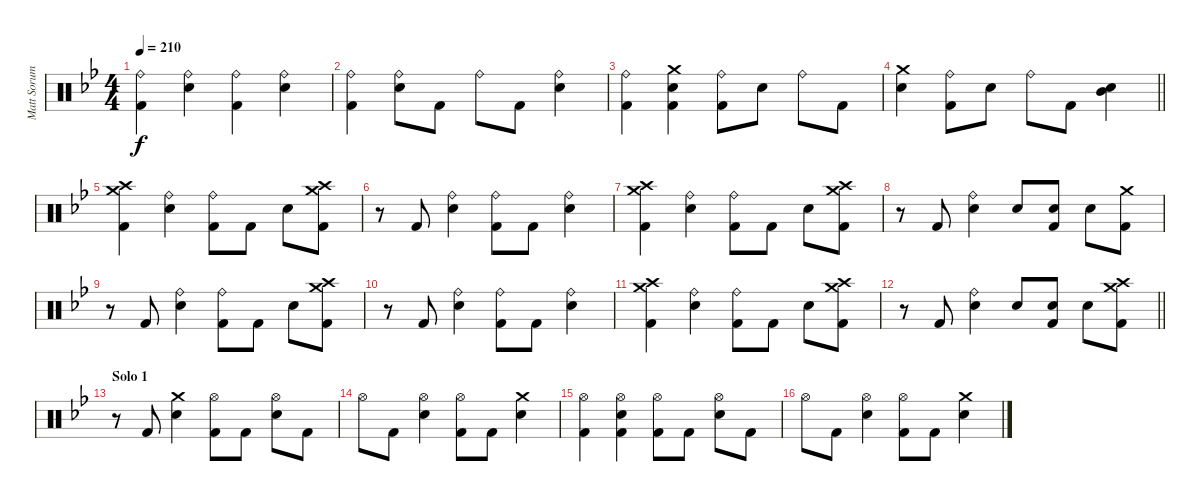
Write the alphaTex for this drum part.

\track ("Matt Sorum - Drums" "Matt Sorum") {instrument percussion}
\staff {score}
\articulation defaults
\ts (4 4)
\tempo 210
\clef neutral
\ks bb
("Ride (bell)" "Kick (hit) 2").4{dy f} ("Ride (bell)" "Snare (hit) 2").4 ("Ride (bell)" "Kick (hit) 2").4 ("Ride (bell)" "Snare (hit) 2").4 |
("Ride (bell)" "Kick (hit) 2").4 ("Ride (bell)" "Snare (hit) 2").8 "Kick (hit) 2".8 "Ride (bell)".8 "Kick (hit) 2".8 ("Ride (bell)" "Snare (hit) 2").4 |
("Ride (bell)" "Kick (hit) 2").4 ("Crash medium (hit)" "Snare (hit) 2" "Kick (hit) 2").4 ("Ride (bell)" "Kick (hit) 2").8 "Snare (hit) 2".8 "Ride (bell)".8 "Kick (hit) 2".8 |
\barLineRight lightlight
("Crash medium (hit)" "Snare (hit) 2").4 ("Ride (bell)" "Kick (hit) 2").8 "Snare (hit) 2".8 "Ride (bell)".8 "Kick (hit) 2".8 ("Mid Tom (hit)" "Snare (hit) 2").4 |
("Crash medium (hit)" "Crash high (hit)" "Kick (hit) 2").4 ("Ride (bell)" "Snare (hit) 2").4 ("Ride (bell)" "Kick (hit) 2").8 "Kick (hit) 2".8 "Snare (hit) 2".8 ("Crash medium (hit)" "Crash high (hit)" "Kick (hit) 2").8 |
r.8 "Kick (hit) 2".8 ("Ride (bell)" "Snare (hit) 2").4 ("Ride (bell)" "Kick (hit) 2").8 "Kick (hit) 2".8 ("Ride (bell)" "Snare (hit) 2").4 |
("Crash medium (hit)" "Crash high (hit)" "Kick (hit) 2").4 ("Ride (bell)" "Snare (hit) 2").4 ("Ride (bell)" "Kick (hit) 2").8 "Kick (hit) 2".8 "Snare (hit) 2".8 ("Crash medium (hit)" "Crash high (hit)" "Kick (hit) 2").8 |
r.8 "Kick (hit) 2".8 ("Ride (bell)" "Snare (hit) 2").4 "Snare (hit) 2".8 ("Snare (hit) 2" "Kick (hit) 2").8 "Snare (hit) 2".8 ("Crash medium (hit)" "Kick (hit) 2").8 |
r.8 "Kick (hit) 2".8 ("Ride (bell)" "Snare (hit) 2").4 ("Ride (bell)" "Kick (hit) 2").8 "Kick (hit) 2".8 "Snare (hit) 2".8 ("Crash medium (hit)" "Crash high (hit)" "Kick (hit) 2").8 |
r.8 "Kick (hit) 2".8 ("Ride (bell)" "Snare (hit) 2").4 ("Ride (bell)" "Kick (hit) 2").8 "Kick (hit) 2".8 ("Ride (bell)" "Snare (hit) 2").4 |
("Crash medium (hit)" "Crash high (hit)" "Kick (hit) 2").4 ("Ride (bell)" "Snare (hit) 2").4 ("Ride (bell)" "Kick (hit) 2").8 "Kick (hit) 2".8 "Snare (hit) 2".8 ("Crash medium (hit)" "Crash high (hit)" "Kick (hit) 2").8 |
\barLineRight lightlight
r.8 "Kick (hit) 2".8 ("Ride (bell)" "Snare (hit) 2").4 "Snare (hit) 2".8 ("Snare (hit) 2" "Kick (hit) 2").8 "Snare (hit) 2".8 ("Crash medium (hit)" "Crash high (hit)" "Kick (hit) 2").8 |
\section ("" "Solo 1")
r.8 "Kick (hit) 2".8 ("Crash medium (hit)" "Snare (hit) 2").4 ("Hi-Hat (open)" "Kick (hit) 2").8 "Kick (hit) 2".8 ("Hi-Hat (open)" "Snare (hit) 2").8 "Kick (hit) 2".8 |
"Hi-Hat (open)".8 "Kick (hit) 2".8 ("Hi-Hat (open)" "Snare (hit) 2").4 ("Hi-Hat (open)" "Kick (hit) 2").8 "Kick (hit) 2".8 ("Crash medium (hit)" "Snare (hit) 2").4 |
("Hi-Hat (open)" "Kick (hit) 2").4 ("Hi-Hat (open)" "Snare (hit) 2" "Kick (hit) 2").4 ("Hi-Hat (open)" "Kick (hit) 2").8 "Kick (hit) 2".8 ("Hi-Hat (open)" "Snare (hit) 2").8 "Kick (hit) 2".8 |
"Hi-Hat (open)".8 "Kick (hit) 2".8 ("Hi-Hat (open)" "Snare (hit) 2").4 ("Hi-Hat (open)" "Kick (hit) 2").8 "Kick (hit) 2".8 ("Crash medium (hit)" "Snare (hit) 2").4
